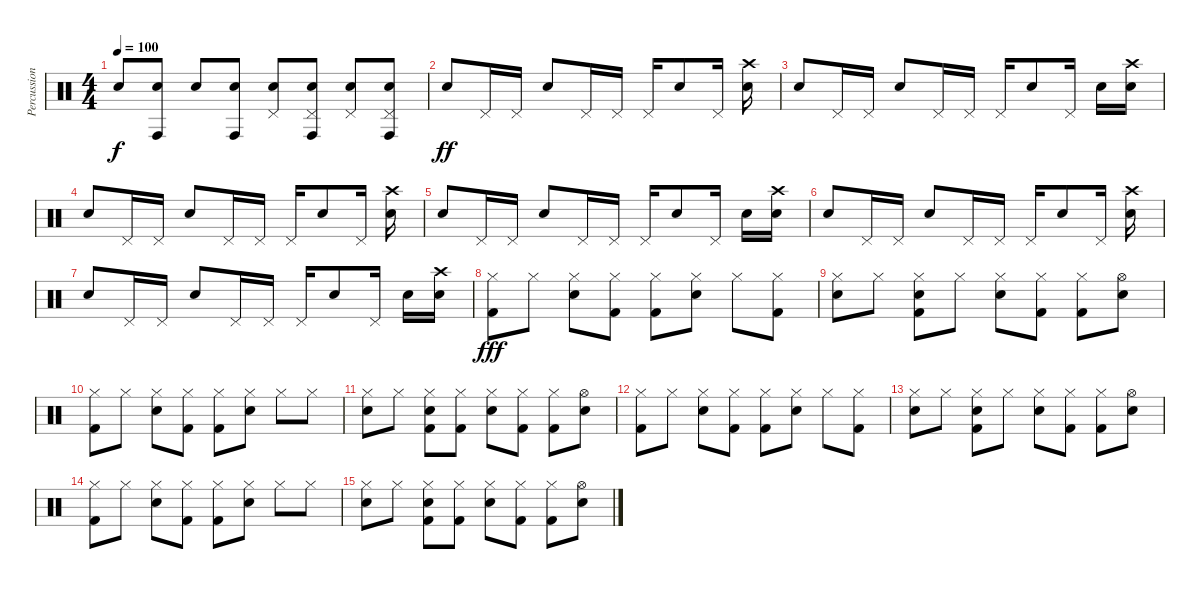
\track ("Percussion" "Percussion") {instrument percussion}
\staff {score}
\articulation defaults
\ts (4 4)
\tempo 100
\clef neutral
\ks c "Snare (hit)".8{dy f}
("Conga high (hit)" "Snare (hit)").8 "Snare (hit)".8 ("Conga high (hit)" "Snare (hit)").8 ("Pedal Hi-Hat (hit)" "Snare (hit)").8 ("Pedal Hi-Hat (hit)" "Conga high (hit)" "Snare (hit)").8 ("Pedal Hi-Hat (hit)" "Snare (hit)").8 ("Pedal Hi-Hat (hit)" "Conga high (hit)" "Snare (hit)").8 |
"Snare (hit) 2".8{dy ff} "Pedal Hi-Hat (hit)".16 "Pedal Hi-Hat (hit)".16 "Snare (hit) 2".8 "Pedal Hi-Hat (hit)".16 "Pedal Hi-Hat (hit)".16 "Pedal Hi-Hat (hit)".16 "Snare (hit) 2".8 "Pedal Hi-Hat (hit)".16 ("Crash high (hit)" "Snare (hit) 2").16 |
"Snare (hit) 2".8 "Pedal Hi-Hat (hit)".16 "Pedal Hi-Hat (hit)".16 "Snare (hit) 2".8 "Pedal Hi-Hat (hit)".16 "Pedal Hi-Hat (hit)".16 "Pedal Hi-Hat (hit)".16 "Snare (hit) 2".8 "Pedal Hi-Hat (hit)".16 "Snare (hit) 2".16 ("Crash high (hit)" "Snare (hit) 2").16 |
"Snare (hit) 2".8 "Pedal Hi-Hat (hit)".16 "Pedal Hi-Hat (hit)".16 "Snare (hit) 2".8 "Pedal Hi-Hat (hit)".16 "Pedal Hi-Hat (hit)".16 "Pedal Hi-Hat (hit)".16 "Snare (hit) 2".8 "Pedal Hi-Hat (hit)".16 ("Crash high (hit)" "Snare (hit) 2").16 |
"Snare (hit) 2".8 "Pedal Hi-Hat (hit)".16 "Pedal Hi-Hat (hit)".16 "Snare (hit) 2".8 "Pedal Hi-Hat (hit)".16 "Pedal Hi-Hat (hit)".16 "Pedal Hi-Hat (hit)".16 "Snare (hit) 2".8 "Pedal Hi-Hat (hit)".16 "Snare (hit) 2".16 ("Crash high (hit)" "Snare (hit) 2").16 |
"Snare (hit) 2".8 "Pedal Hi-Hat (hit)".16 "Pedal Hi-Hat (hit)".16 "Snare (hit) 2".8 "Pedal Hi-Hat (hit)".16 "Pedal Hi-Hat (hit)".16 "Pedal Hi-Hat (hit)".16 "Snare (hit) 2".8 "Pedal Hi-Hat (hit)".16 ("Crash high (hit)" "Snare (hit) 2").16 |
"Snare (hit) 2".8 "Pedal Hi-Hat (hit)".16 "Pedal Hi-Hat (hit)".16 "Snare (hit) 2".8 "Pedal Hi-Hat (hit)".16 "Pedal Hi-Hat (hit)".16 "Pedal Hi-Hat (hit)".16 "Snare (hit) 2".8 "Pedal Hi-Hat (hit)".16 "Snare (hit) 2".16 ("Crash high (hit)" "Snare (hit) 2").16 |
("Kick (hit) 2" "Hi-Hat (closed)").8{dy fff} "Hi-Hat (closed)".8 ("Electric Snare (hit)" "Hi-Hat (closed)").8 ("Kick (hit) 2" "Hi-Hat (closed)").8 ("Kick (hit) 2" "Hi-Hat (closed)").8 ("Electric Snare (hit)" "Hi-Hat (closed)").8 "Hi-Hat (closed)".8 ("Kick (hit) 2" "Hi-Hat (closed)").8 |
("Electric Snare (hit)" "Hi-Hat (closed)").8 "Hi-Hat (closed)".8 ("Kick (hit) 2" "Electric Snare (hit)" "Hi-Hat (closed)").8 "Hi-Hat (closed)".8 ("Electric Snare (hit)" "Hi-Hat (closed)").8 ("Kick (hit) 2" "Hi-Hat (closed)").8 ("Kick (hit) 2" "Hi-Hat (closed)").8 ("Electric Snare (hit)" "Hi-Hat (open)").8 |
("Kick (hit) 2" "Hi-Hat (closed)").8 "Hi-Hat (closed)".8 ("Electric Snare (hit)" "Hi-Hat (closed)").8 ("Kick (hit) 2" "Hi-Hat (closed)").8 ("Kick (hit) 2" "Hi-Hat (closed)").8 ("Electric Snare (hit)" "Hi-Hat (closed)").8 "Hi-Hat (closed)".8 "Hi-Hat (closed)".8 |
("Electric Snare (hit)" "Hi-Hat (closed)").8 "Hi-Hat (closed)".8 ("Kick (hit) 2" "Electric Snare (hit)" "Hi-Hat (closed)").8 ("Kick (hit) 2" "Hi-Hat (closed)").8 ("Electric Snare (hit)" "Hi-Hat (closed)").8 ("Kick (hit) 2" "Hi-Hat (closed)").8 ("Kick (hit) 2" "Hi-Hat (closed)").8 ("Electric Snare (hit)" "Hi-Hat (open)").8 |
("Kick (hit) 2" "Hi-Hat (closed)").8 "Hi-Hat (closed)".8 ("Electric Snare (hit)" "Hi-Hat (closed)").8 ("Kick (hit) 2" "Hi-Hat (closed)").8 ("Kick (hit) 2" "Hi-Hat (closed)").8 ("Electric Snare (hit)" "Hi-Hat (closed)").8 "Hi-Hat (closed)".8 ("Kick (hit) 2" "Hi-Hat (closed)").8 |
("Electric Snare (hit)" "Hi-Hat (closed)").8 "Hi-Hat (closed)".8 ("Kick (hit) 2" "Electric Snare (hit)" "Hi-Hat (closed)").8 "Hi-Hat (closed)".8 ("Electric Snare (hit)" "Hi-Hat (closed)").8 ("Kick (hit) 2" "Hi-Hat (closed)").8 ("Kick (hit) 2" "Hi-Hat (closed)").8 ("Electric Snare (hit)" "Hi-Hat (open)").8 |
("Kick (hit) 2" "Hi-Hat (closed)").8 "Hi-Hat (closed)".8 ("Electric Snare (hit)" "Hi-Hat (closed)").8 ("Kick (hit) 2" "Hi-Hat (closed)").8 ("Kick (hit) 2" "Hi-Hat (closed)").8 ("Electric Snare (hit)" "Hi-Hat (closed)").8 "Hi-Hat (closed)".8 "Hi-Hat (closed)".8 |
("Electric Snare (hit)" "Hi-Hat (closed)").8 "Hi-Hat (closed)".8 ("Kick (hit) 2" "Electric Snare (hit)" "Hi-Hat (closed)").8 ("Kick (hit) 2" "Hi-Hat (closed)").8 ("Electric Snare (hit)" "Hi-Hat (closed)").8 ("Kick (hit) 2" "Hi-Hat (closed)").8 ("Kick (hit) 2" "Hi-Hat (closed)").8 ("Electric Snare (hit)" "Hi-Hat (open)").8
